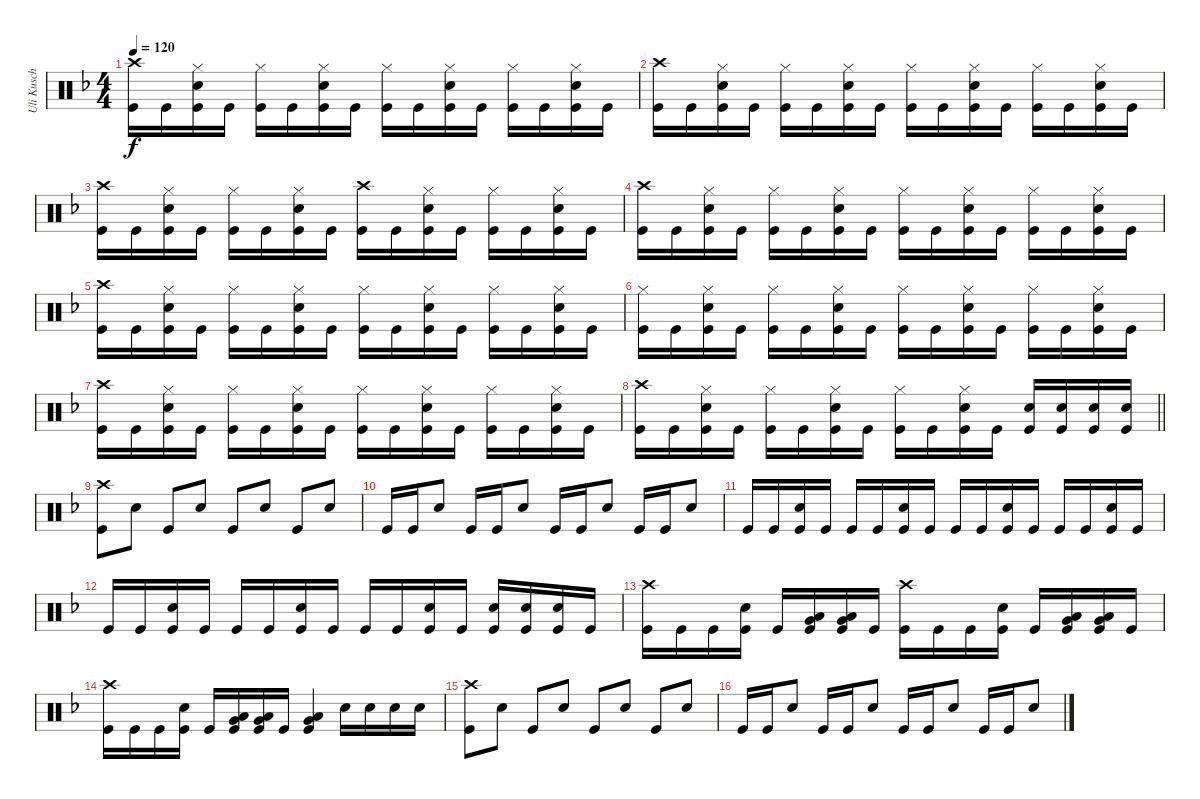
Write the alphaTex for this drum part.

\track ("Uli Kusch" "Uli Kusch") {instrument percussion}
\staff {score}
\articulation defaults
\ts (4 4)
\tempo 120
\clef neutral
\ks f
("Crash high (hit)" "Kick (hit)").16{dy f} "Kick (hit)".16 ("Hi-Hat (closed)" "Snare (hit) 2" "Kick (hit)").16 "Kick (hit)".16 ("Hi-Hat (closed)" "Kick (hit)").16 "Kick (hit)".16 ("Hi-Hat (closed)" "Snare (hit) 2" "Kick (hit)").16 "Kick (hit)".16 ("Hi-Hat (closed)" "Kick (hit)").16 "Kick (hit)".16 ("Hi-Hat (closed)" "Snare (hit) 2" "Kick (hit)").16 "Kick (hit)".16 ("Hi-Hat (closed)" "Kick (hit)").16 "Kick (hit)".16 ("Hi-Hat (closed)" "Snare (hit) 2" "Kick (hit)").16 "Kick (hit)".16 |
("Crash high (hit)" "Kick (hit)").16 "Kick (hit)".16 ("Hi-Hat (closed)" "Snare (hit) 2" "Kick (hit)").16 "Kick (hit)".16 ("Hi-Hat (closed)" "Kick (hit)").16 "Kick (hit)".16 ("Hi-Hat (closed)" "Snare (hit) 2" "Kick (hit)").16 "Kick (hit)".16 ("Hi-Hat (closed)" "Kick (hit)").16 "Kick (hit)".16 ("Hi-Hat (closed)" "Snare (hit) 2" "Kick (hit)").16 "Kick (hit)".16 ("Hi-Hat (closed)" "Kick (hit)").16 "Kick (hit)".16 ("Hi-Hat (closed)" "Snare (hit) 2" "Kick (hit)").16 "Kick (hit)".16 |
("Crash high (hit)" "Kick (hit)").16 "Kick (hit)".16 ("Hi-Hat (closed)" "Snare (hit) 2" "Kick (hit)").16 "Kick (hit)".16 ("Hi-Hat (closed)" "Kick (hit)").16 "Kick (hit)".16 ("Hi-Hat (closed)" "Snare (hit) 2" "Kick (hit)").16 "Kick (hit)".16 ("Crash high (hit)" "Kick (hit)").16 "Kick (hit)".16 ("Hi-Hat (closed)" "Snare (hit) 2" "Kick (hit)").16 "Kick (hit)".16 ("Hi-Hat (closed)" "Kick (hit)").16 "Kick (hit)".16 ("Hi-Hat (closed)" "Snare (hit) 2" "Kick (hit)").16 "Kick (hit)".16 |
("Crash high (hit)" "Kick (hit)").16 "Kick (hit)".16 ("Hi-Hat (closed)" "Snare (hit) 2" "Kick (hit)").16 "Kick (hit)".16 ("Hi-Hat (closed)" "Kick (hit)").16 "Kick (hit)".16 ("Hi-Hat (closed)" "Snare (hit) 2" "Kick (hit)").16 "Kick (hit)".16 ("Hi-Hat (closed)" "Kick (hit)").16 "Kick (hit)".16 ("Hi-Hat (closed)" "Snare (hit) 2" "Kick (hit)").16 "Kick (hit)".16 ("Hi-Hat (closed)" "Kick (hit)").16 "Kick (hit)".16 ("Hi-Hat (closed)" "Snare (hit) 2" "Kick (hit)").16 "Kick (hit)".16 |
("Crash high (hit)" "Kick (hit)").16 "Kick (hit)".16 ("Hi-Hat (closed)" "Snare (hit) 2" "Kick (hit)").16 "Kick (hit)".16 ("Hi-Hat (closed)" "Kick (hit)").16 "Kick (hit)".16 ("Hi-Hat (closed)" "Snare (hit) 2" "Kick (hit)").16 "Kick (hit)".16 ("Hi-Hat (closed)" "Kick (hit)").16 "Kick (hit)".16 ("Hi-Hat (closed)" "Snare (hit) 2" "Kick (hit)").16 "Kick (hit)".16 ("Hi-Hat (closed)" "Kick (hit)").16 "Kick (hit)".16 ("Hi-Hat (closed)" "Snare (hit) 2" "Kick (hit)").16 "Kick (hit)".16 |
("Hi-Hat (closed)" "Kick (hit)").16 "Kick (hit)".16 ("Hi-Hat (closed)" "Snare (hit) 2" "Kick (hit)").16 "Kick (hit)".16 ("Hi-Hat (closed)" "Kick (hit)").16 "Kick (hit)".16 ("Hi-Hat (closed)" "Snare (hit) 2" "Kick (hit)").16 "Kick (hit)".16 ("Hi-Hat (closed)" "Kick (hit)").16 "Kick (hit)".16 ("Hi-Hat (closed)" "Snare (hit) 2" "Kick (hit)").16 "Kick (hit)".16 ("Hi-Hat (closed)" "Kick (hit)").16 "Kick (hit)".16 ("Hi-Hat (closed)" "Snare (hit) 2" "Kick (hit)").16 "Kick (hit)".16 |
("Crash high (hit)" "Kick (hit)").16 "Kick (hit)".16 ("Hi-Hat (closed)" "Snare (hit) 2" "Kick (hit)").16 "Kick (hit)".16 ("Hi-Hat (closed)" "Kick (hit)").16 "Kick (hit)".16 ("Hi-Hat (closed)" "Snare (hit) 2" "Kick (hit)").16 "Kick (hit)".16 ("Hi-Hat (closed)" "Kick (hit)").16 "Kick (hit)".16 ("Hi-Hat (closed)" "Snare (hit) 2" "Kick (hit)").16 "Kick (hit)".16 ("Hi-Hat (closed)" "Kick (hit)").16 "Kick (hit)".16 ("Hi-Hat (closed)" "Snare (hit) 2" "Kick (hit)").16 "Kick (hit)".16 |
\barLineRight lightlight
("Crash high (hit)" "Kick (hit)").16 "Kick (hit)".16 ("Hi-Hat (closed)" "Snare (hit) 2" "Kick (hit)").16 "Kick (hit)".16 ("Hi-Hat (closed)" "Kick (hit)").16 "Kick (hit)".16 ("Hi-Hat (closed)" "Snare (hit) 2" "Kick (hit)").16 "Kick (hit)".16 ("Hi-Hat (closed)" "Kick (hit)").16 "Kick (hit)".16 ("Hi-Hat (closed)" "Snare (hit) 2" "Kick (hit)").16 "Kick (hit)".16 ("Snare (hit) 2" "Kick (hit)").16 ("Snare (hit) 2" "Kick (hit)").16 ("Snare (hit) 2" "Kick (hit)").16 ("Snare (hit) 2" "Kick (hit)").16 |
("Crash high (hit)" "Kick (hit)").8 "Snare (hit) 2".8 "Kick (hit)".8 "Snare (hit) 2".8 "Kick (hit)".8 "Snare (hit) 2".8 "Kick (hit)".8 "Snare (hit) 2".8 |
"Kick (hit)".16 "Kick (hit)".16 "Snare (hit) 2".8 "Kick (hit)".16 "Kick (hit)".16 "Snare (hit) 2".8 "Kick (hit)".16 "Kick (hit)".16 "Snare (hit) 2".8 "Kick (hit)".16 "Kick (hit)".16 "Snare (hit) 2".8 |
"Kick (hit)".16 "Kick (hit)".16 ("Snare (hit) 2" "Kick (hit)").16 "Kick (hit)".16 "Kick (hit)".16 "Kick (hit)".16 ("Snare (hit) 2" "Kick (hit)").16 "Kick (hit)".16 "Kick (hit)".16 "Kick (hit)".16 ("Snare (hit) 2" "Kick (hit)").16 "Kick (hit)".16 "Kick (hit)".16 "Kick (hit)".16 ("Snare (hit) 2" "Kick (hit)").16 "Kick (hit)".16 |
"Kick (hit)".16 "Kick (hit)".16 ("Snare (hit) 2" "Kick (hit)").16 "Kick (hit)".16 "Kick (hit)".16 "Kick (hit)".16 ("Snare (hit) 2" "Kick (hit)").16 "Kick (hit)".16 "Kick (hit)".16 "Kick (hit)".16 ("Snare (hit) 2" "Kick (hit)").16 "Kick (hit)".16 ("Snare (hit) 2" "Kick (hit)").16 ("Snare (hit) 2" "Kick (hit)").16 ("Snare (hit) 2" "Kick (hit)").16 "Kick (hit)".16 |
("Crash high (hit)" "Kick (hit)").16 "Kick (hit)".16 "Kick (hit)".16 ("Snare (hit) 2" "Kick (hit)").16 "Kick (hit)".16 ("Low Tom (hit)" "Very Low Tom (hit)" "Kick (hit)").16 ("Low Tom (hit)" "Very Low Tom (hit)" "Kick (hit)").16 "Kick (hit)".16 ("Crash high (hit)" "Kick (hit)").16 "Kick (hit)".16 "Kick (hit)".16 ("Snare (hit) 2" "Kick (hit)").16 "Kick (hit)".16 ("Low Tom (hit)" "Very Low Tom (hit)" "Kick (hit)").16 ("Low Tom (hit)" "Very Low Tom (hit)" "Kick (hit)").16 "Kick (hit)".16 |
("Crash high (hit)" "Kick (hit)").16 "Kick (hit)".16 "Kick (hit)".16 ("Snare (hit) 2" "Kick (hit)").16 "Kick (hit)".16 ("Low Tom (hit)" "Very Low Tom (hit)" "Kick (hit)").16 ("Low Tom (hit)" "Very Low Tom (hit)" "Kick (hit)").16 "Kick (hit)".16 ("Low Tom (hit)" "Very Low Tom (hit)" "Kick (hit)").4 "Snare (hit) 2".16 "Snare (hit) 2".16 "Snare (hit) 2".16 "Snare (hit) 2".16 |
("Crash high (hit)" "Kick (hit)").8 "Snare (hit) 2".8 "Kick (hit)".8 "Snare (hit) 2".8 "Kick (hit)".8 "Snare (hit) 2".8 "Kick (hit)".8 "Snare (hit) 2".8 |
"Kick (hit)".16 "Kick (hit)".16 "Snare (hit) 2".8 "Kick (hit)".16 "Kick (hit)".16 "Snare (hit) 2".8 "Kick (hit)".16 "Kick (hit)".16 "Snare (hit) 2".8 "Kick (hit)".16 "Kick (hit)".16 "Snare (hit) 2".8
